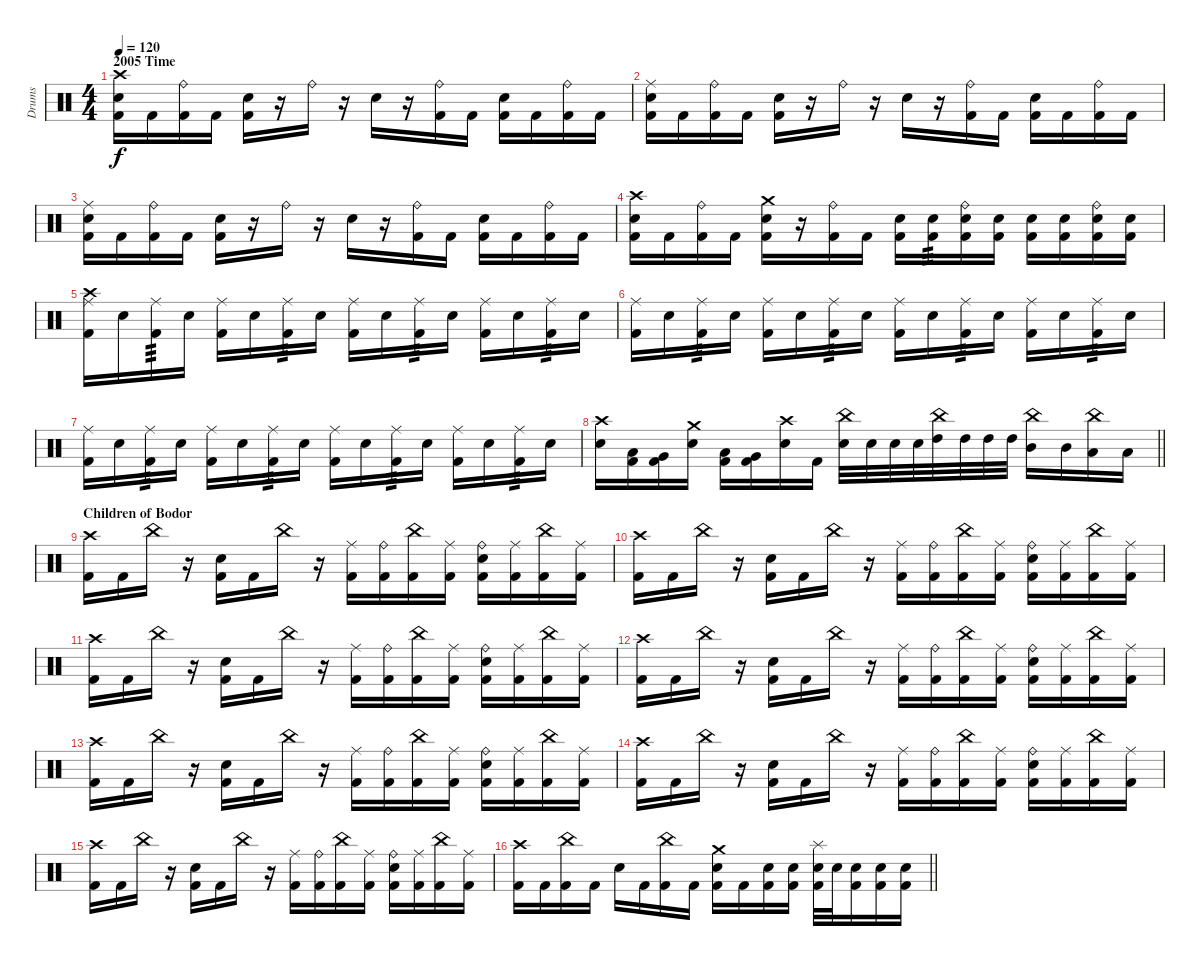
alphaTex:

\track ("Drums" "Drums") {instrument percussion}
\staff {score}
\articulation defaults
\ts (4 4)
\section ("" "2005 Time")
\tempo 120
\clef neutral
\ks c
("Crash high (hit)" "Snare (hit) 2" "Kick (hit) 2").16{dy f} "Kick (hit) 2".16 ("Ride (bell)" "Kick (hit) 2").16 "Kick (hit) 2".16 ("Snare (hit) 2" "Kick (hit) 2").16 r.16 "Ride (bell)".16 r.16 "Snare (hit) 2".16 r.16 ("Ride (bell)" "Kick (hit) 2").16 "Kick (hit) 2".16 ("Snare (hit) 2" "Kick (hit) 2").16 "Kick (hit) 2".16 ("Ride (bell)" "Kick (hit) 2").16 "Kick (hit) 2".16 |
("Ride (middle)" "Snare (hit) 2" "Kick (hit) 2").16 "Kick (hit) 2".16 ("Ride (bell)" "Kick (hit) 2").16 "Kick (hit) 2".16 ("Snare (hit) 2" "Kick (hit) 2").16 r.16 "Ride (bell)".16 r.16 "Snare (hit) 2".16 r.16 ("Ride (bell)" "Kick (hit) 2").16 "Kick (hit) 2".16 ("Snare (hit) 2" "Kick (hit) 2").16 "Kick (hit) 2".16 ("Ride (bell)" "Kick (hit) 2").16 "Kick (hit) 2".16 |
("Ride (middle)" "Snare (hit) 2" "Kick (hit) 2").16 "Kick (hit) 2".16 ("Ride (bell)" "Kick (hit) 2").16 "Kick (hit) 2".16 ("Snare (hit) 2" "Kick (hit) 2").16 r.16 "Ride (bell)".16 r.16 "Snare (hit) 2".16 r.16 ("Ride (bell)" "Kick (hit) 2").16 "Kick (hit) 2".16 ("Snare (hit) 2" "Kick (hit) 2").16 "Kick (hit) 2".16 ("Ride (bell)" "Kick (hit) 2").16 "Kick (hit) 2".16 |
("Crash high (hit)" "Snare (hit) 2" "Kick (hit) 2").16 "Kick (hit) 2".16 ("Ride (bell)" "Kick (hit) 2").16 "Kick (hit) 2".16 ("Crash medium (hit)" "Snare (hit) 2" "Kick (hit) 2").16 r.16 ("Ride (bell)" "Kick (hit) 2").16 "Kick (hit) 2".16 ("Snare (hit) 2" "Kick (hit) 2").16 ("Snare (hit) 2" "Kick (hit) 2").16{tp 3} ("Ride (bell)" "Snare (hit) 2" "Kick (hit) 2").16 ("Snare (hit) 2" "Kick (hit) 2").16 ("Snare (hit) 2" "Kick (hit) 2").16 ("Snare (hit) 2" "Kick (hit) 2").16 ("Ride (bell)" "Snare (hit) 2" "Kick (hit) 2").16 ("Snare (hit) 2" "Kick (hit) 2").16 |
("Crash high (hit)" "Ride (middle)" "Kick (hit) 2").16 "Snare (hit) 2".16 ("Ride (middle)" "Kick (hit) 2").16{tp 3} "Snare (hit) 2".16 ("Ride (middle)" "Kick (hit) 2").16 "Snare (hit) 2".16 ("Ride (middle)" "Kick (hit) 2").16{tp 3} "Snare (hit) 2".16 ("Ride (middle)" "Kick (hit) 2").16 "Snare (hit) 2".16 ("Ride (middle)" "Kick (hit) 2").16{tp 3} "Snare (hit) 2".16 ("Ride (middle)" "Kick (hit) 2").16 "Snare (hit) 2".16 ("Ride (middle)" "Kick (hit) 2").16{tp 3} "Snare (hit) 2".16 |
("Ride (middle)" "Kick (hit) 2").16 "Snare (hit) 2".16 ("Ride (middle)" "Kick (hit) 2").16{tp 3} "Snare (hit) 2".16 ("Ride (middle)" "Kick (hit) 2").16 "Snare (hit) 2".16 ("Ride (middle)" "Kick (hit) 2").16{tp 3} "Snare (hit) 2".16 ("Ride (middle)" "Kick (hit) 2").16 "Snare (hit) 2".16 ("Ride (middle)" "Kick (hit) 2").16{tp 3} "Snare (hit) 2".16 ("Ride (middle)" "Kick (hit) 2").16 "Snare (hit) 2".16 ("Ride (middle)" "Kick (hit) 2").16{tp 3} "Snare (hit) 2".16 |
("Ride (middle)" "Kick (hit) 2").16 "Snare (hit) 2".16 ("Ride (middle)" "Kick (hit) 2").16{tp 3} "Snare (hit) 2".16 ("Ride (middle)" "Kick (hit) 2").16 "Snare (hit) 2".16 ("Ride (middle)" "Kick (hit) 2").16{tp 3} "Snare (hit) 2".16 ("Ride (middle)" "Kick (hit) 2").16 "Snare (hit) 2".16 ("Ride (middle)" "Kick (hit) 2").16{tp 3} "Snare (hit) 2".16 ("Ride (middle)" "Kick (hit) 2").16 "Snare (hit) 2".16 ("Ride (middle)" "Kick (hit) 2").16{tp 3} "Snare (hit) 2".16 |
\barLineRight lightlight
("Crash high (hit)" "Snare (hit) 2").16 ("Low Tom (hit)" "Kick (hit) 2").16 ("Very Low Tom (hit)" "Kick (hit) 2").16 ("Crash medium (hit)" "Snare (hit) 2").16 ("Low Tom (hit)" "Kick (hit) 2").16 ("Very Low Tom (hit)" "Kick (hit) 2").16 ("Crash high (hit)" "Snare (hit) 2").16 "Kick (hit) 2".16 ("China (hit)" "Snare (hit) 2").32 "Snare (hit) 2".32 "Snare (hit) 2".32 "Snare (hit) 2".32 ("China (hit)" "High Tom (hit)").32 "High Tom (hit)".32 "High Tom (hit)".32 "High Tom (hit)".32 ("China (hit)" "Mid Tom (hit)").16 "Mid Tom (hit)".16 ("China (hit)" "Low Tom (hit)").16 "Low Tom (hit)".16 |
\section ("" "Children of Bodor")
("Crash high (hit)" "Kick (hit) 2").16 "Kick (hit) 2".16 "China (hit)".16 r.16 ("Snare (hit) 2" "Kick (hit) 2").16 "Kick (hit) 2".16 "China (hit)".16 r.16 ("Ride (middle)" "Kick (hit) 2").16 ("Ride (bell)" "Kick (hit) 2").16 ("China (hit)" "Kick (hit) 2").16 ("Ride (middle)" "Kick (hit) 2").16 ("Ride (bell)" "Snare (hit) 2" "Kick (hit) 2").16 ("Ride (middle)" "Kick (hit) 2").16 ("China (hit)" "Kick (hit) 2").16 ("Ride (middle)" "Kick (hit) 2").16 |
("Crash high (hit)" "Kick (hit) 2").16 "Kick (hit) 2".16 "China (hit)".16 r.16 ("Snare (hit) 2" "Kick (hit) 2").16 "Kick (hit) 2".16 "China (hit)".16 r.16 ("Ride (middle)" "Kick (hit) 2").16 ("Ride (bell)" "Kick (hit) 2").16 ("China (hit)" "Kick (hit) 2").16 ("Ride (middle)" "Kick (hit) 2").16 ("Ride (bell)" "Snare (hit) 2" "Kick (hit) 2").16 ("Ride (middle)" "Kick (hit) 2").16 ("China (hit)" "Kick (hit) 2").16 ("Ride (middle)" "Kick (hit) 2").16 |
("Crash high (hit)" "Kick (hit) 2").16 "Kick (hit) 2".16 "China (hit)".16 r.16 ("Snare (hit) 2" "Kick (hit) 2").16 "Kick (hit) 2".16 "China (hit)".16 r.16 ("Ride (middle)" "Kick (hit) 2").16 ("Ride (bell)" "Kick (hit) 2").16 ("China (hit)" "Kick (hit) 2").16 ("Ride (middle)" "Kick (hit) 2").16 ("Ride (bell)" "Snare (hit) 2" "Kick (hit) 2").16 ("Ride (middle)" "Kick (hit) 2").16 ("China (hit)" "Kick (hit) 2").16 ("Ride (middle)" "Kick (hit) 2").16 |
("Crash high (hit)" "Kick (hit) 2").16 "Kick (hit) 2".16 "China (hit)".16 r.16 ("Snare (hit) 2" "Kick (hit) 2").16 "Kick (hit) 2".16 "China (hit)".16 r.16 ("Ride (middle)" "Kick (hit) 2").16 ("Ride (bell)" "Kick (hit) 2").16 ("China (hit)" "Kick (hit) 2").16 ("Ride (middle)" "Kick (hit) 2").16 ("Ride (bell)" "Snare (hit) 2" "Kick (hit) 2").16 ("Ride (middle)" "Kick (hit) 2").16 ("China (hit)" "Kick (hit) 2").16 ("Ride (middle)" "Kick (hit) 2").16 |
("Crash high (hit)" "Kick (hit) 2").16 "Kick (hit) 2".16 "China (hit)".16 r.16 ("Snare (hit) 2" "Kick (hit) 2").16 "Kick (hit) 2".16 "China (hit)".16 r.16 ("Ride (middle)" "Kick (hit) 2").16 ("Ride (bell)" "Kick (hit) 2").16 ("China (hit)" "Kick (hit) 2").16 ("Ride (middle)" "Kick (hit) 2").16 ("Ride (bell)" "Snare (hit) 2" "Kick (hit) 2").16 ("Ride (middle)" "Kick (hit) 2").16 ("China (hit)" "Kick (hit) 2").16 ("Ride (middle)" "Kick (hit) 2").16 |
("Crash high (hit)" "Kick (hit) 2").16 "Kick (hit) 2".16 "China (hit)".16 r.16 ("Snare (hit) 2" "Kick (hit) 2").16 "Kick (hit) 2".16 "China (hit)".16 r.16 ("Ride (middle)" "Kick (hit) 2").16 ("Ride (bell)" "Kick (hit) 2").16 ("China (hit)" "Kick (hit) 2").16 ("Ride (middle)" "Kick (hit) 2").16 ("Ride (bell)" "Snare (hit) 2" "Kick (hit) 2").16 ("Ride (middle)" "Kick (hit) 2").16 ("China (hit)" "Kick (hit) 2").16 ("Ride (middle)" "Kick (hit) 2").16 |
("Crash high (hit)" "Kick (hit) 2").16 "Kick (hit) 2".16 "China (hit)".16 r.16 ("Snare (hit) 2" "Kick (hit) 2").16 "Kick (hit) 2".16 "China (hit)".16 r.16 ("Ride (middle)" "Kick (hit) 2").16 ("Ride (bell)" "Kick (hit) 2").16 ("China (hit)" "Kick (hit) 2").16 ("Ride (middle)" "Kick (hit) 2").16 ("Ride (bell)" "Snare (hit) 2" "Kick (hit) 2").16 ("Ride (middle)" "Kick (hit) 2").16 ("China (hit)" "Kick (hit) 2").16 ("Ride (middle)" "Kick (hit) 2").16 |
\barLineRight lightlight
("Crash high (hit)" "Kick (hit) 2").16 "Kick (hit) 2".16 ("China (hit)" "Kick (hit) 2").16 "Kick (hit) 2".16 "Snare (hit) 2".16 "Kick (hit) 2".16 ("China (hit)" "Kick (hit) 2").16 "Kick (hit) 2".16 ("Crash medium (hit)" "Snare (hit) 2" "Kick (hit) 2").16 "Kick (hit) 2".16 ("Snare (hit) 2" "Kick (hit) 2").16 ("Snare (hit) 2" "Kick (hit) 2").16 ("Splash (hit)" "Snare (hit) 2" "Kick (hit) 2").32 "Snare (hit) 2".32 ("Snare (hit) 2" "Kick (hit) 2").16 ("Snare (hit) 2" "Kick (hit) 2").16 ("Snare (hit) 2" "Kick (hit) 2").16
